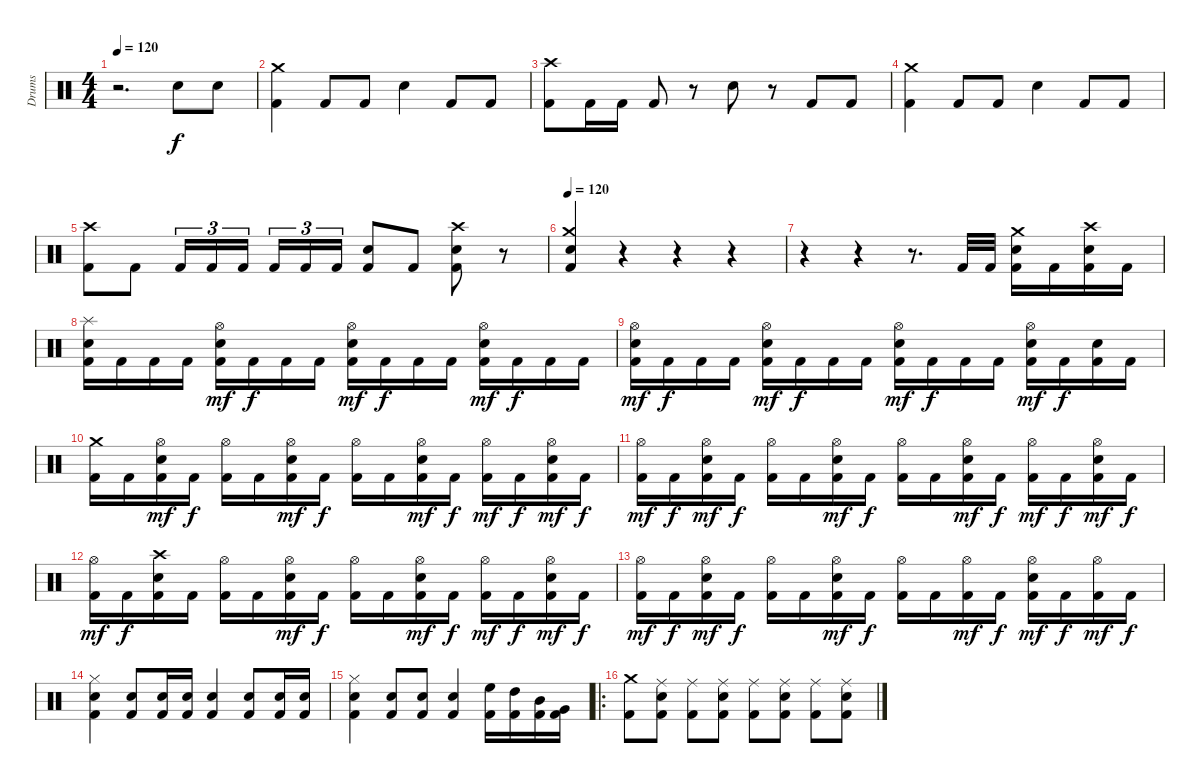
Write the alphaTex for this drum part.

\track ("Drums" "Drums") {instrument percussion}
\staff {score}
\articulation defaults
\ts (4 4)
\tempo 120
\tempo 100
\tempo 120
\clef neutral
\ks c
r.2{d dy f} "Snare (hit) 2".8 "Snare (hit) 2".8 |
("Crash medium (hit)" "Kick (hit) 2").4 "Kick (hit) 2".8 "Kick (hit) 2".8 "Snare (hit) 2".4 "Kick (hit) 2".8 "Kick (hit) 2".8 |
("Crash high (hit)" "Kick (hit) 2").8 "Kick (hit) 2".16 "Kick (hit) 2".16 "Kick (hit) 2".8 r.8 "Snare (hit) 2".8 r.8 "Kick (hit) 2".8 "Kick (hit) 2".8 |
("Crash medium (hit)" "Kick (hit) 2").4 "Kick (hit) 2".8 "Kick (hit) 2".8 "Snare (hit) 2".4 "Kick (hit) 2".8 "Kick (hit) 2".8 |
("Crash high (hit)" "Kick (hit) 2").8 "Kick (hit) 2".8 "Kick (hit) 2".16{tu (3 2)} "Kick (hit) 2".16{tu (3 2)} "Kick (hit) 2".16{tu (3 2)} "Kick (hit) 2".16{tu (3 2)} "Kick (hit) 2".16{tu (3 2)} "Kick (hit) 2".16{tu (3 2)} ("Snare (hit) 2" "Kick (hit) 2").8 "Kick (hit) 2".8 ("Crash high (hit)" "Snare (hit) 2" "Kick (hit) 2").8 r.8 |
\tempo 120
("Crash medium (hit)" "Snare (hit) 2" "Kick (hit) 2").4 r.4 r.4 r.4 |
r.4 r.4 r.8{d} "Kick (hit) 2".32 "Kick (hit) 2".32 ("Crash medium (hit)" "Snare (hit) 2" "Kick (hit) 2").16 "Kick (hit) 2".16 ("Crash high (hit)" "Snare (hit) 2" "Kick (hit) 2").16 "Kick (hit) 2".16 |
("Splash (hit)" "Snare (hit) 2" "Kick (hit) 2").16 "Kick (hit) 2".16 "Kick (hit) 2".16 "Kick (hit) 2".16 ("Hi-Hat (open)" "Snare (hit) 2" "Kick (hit) 2").16{dy mf} "Kick (hit) 2".16{dy f} "Kick (hit) 2".16 "Kick (hit) 2".16 ("Hi-Hat (open)" "Snare (hit) 2" "Kick (hit) 2").16{dy mf} "Kick (hit) 2".16{dy f} "Kick (hit) 2".16 "Kick (hit) 2".16 ("Hi-Hat (open)" "Snare (hit) 2" "Kick (hit) 2").16{dy mf} "Kick (hit) 2".16{dy f} "Kick (hit) 2".16 "Kick (hit) 2".16 |
("Hi-Hat (open)" "Snare (hit) 2" "Kick (hit) 2").16{dy mf} "Kick (hit) 2".16{dy f} "Kick (hit) 2".16 "Kick (hit) 2".16 ("Hi-Hat (open)" "Snare (hit) 2" "Kick (hit) 2").16{dy mf} "Kick (hit) 2".16{dy f} "Kick (hit) 2".16 "Kick (hit) 2".16 ("Hi-Hat (open)" "Snare (hit) 2" "Kick (hit) 2").16{dy mf} "Kick (hit) 2".16{dy f} "Kick (hit) 2".16 "Kick (hit) 2".16 ("Hi-Hat (open)" "Snare (hit) 2" "Kick (hit) 2").16{dy mf} "Kick (hit) 2".16{dy f} ("Snare (hit) 2" "Kick (hit) 2").16 "Kick (hit) 2".16 |
("Crash medium (hit)" "Kick (hit) 2").16 "Kick (hit) 2".16 ("Hi-Hat (open)" "Snare (hit) 2" "Kick (hit) 2").16{dy mf} "Kick (hit) 2".16{dy f} ("Hi-Hat (open)" "Kick (hit) 2").16 "Kick (hit) 2".16 ("Hi-Hat (open)" "Snare (hit) 2" "Kick (hit) 2").16{dy mf} "Kick (hit) 2".16{dy f} ("Hi-Hat (open)" "Kick (hit) 2").16 "Kick (hit) 2".16 ("Hi-Hat (open)" "Snare (hit) 2" "Kick (hit) 2").16{dy mf} "Kick (hit) 2".16{dy f} ("Hi-Hat (open)" "Kick (hit) 2").16{dy mf} "Kick (hit) 2".16{dy f} ("Hi-Hat (open)" "Snare (hit) 2" "Kick (hit) 2").16{dy mf} "Kick (hit) 2".16{dy f} |
("Hi-Hat (open)" "Kick (hit) 2").16{dy mf} "Kick (hit) 2".16{dy f} ("Hi-Hat (open)" "Snare (hit) 2" "Kick (hit) 2").16{dy mf} "Kick (hit) 2".16{dy f} ("Hi-Hat (open)" "Kick (hit) 2").16 "Kick (hit) 2".16 ("Hi-Hat (open)" "Snare (hit) 2" "Kick (hit) 2").16{dy mf} "Kick (hit) 2".16{dy f} ("Hi-Hat (open)" "Kick (hit) 2").16 "Kick (hit) 2".16 ("Hi-Hat (open)" "Snare (hit) 2" "Kick (hit) 2").16{dy mf} "Kick (hit) 2".16{dy f} ("Hi-Hat (open)" "Kick (hit) 2").16{dy mf} "Kick (hit) 2".16{dy f} ("Hi-Hat (open)" "Snare (hit) 2" "Kick (hit) 2").16{dy mf} "Kick (hit) 2".16{dy f} |
("Hi-Hat (open)" "Kick (hit) 2").16{dy mf} "Kick (hit) 2".16{dy f} ("Crash high (hit)" "Snare (hit) 2" "Kick (hit) 2").16 "Kick (hit) 2".16 ("Hi-Hat (open)" "Kick (hit) 2").16 "Kick (hit) 2".16 ("Hi-Hat (open)" "Snare (hit) 2" "Kick (hit) 2").16{dy mf} "Kick (hit) 2".16{dy f} ("Hi-Hat (open)" "Kick (hit) 2").16 "Kick (hit) 2".16 ("Hi-Hat (open)" "Snare (hit) 2" "Kick (hit) 2").16{dy mf} "Kick (hit) 2".16{dy f} ("Hi-Hat (open)" "Kick (hit) 2").16{dy mf} "Kick (hit) 2".16{dy f} ("Hi-Hat (open)" "Snare (hit) 2" "Kick (hit) 2").16{dy mf} "Kick (hit) 2".16{dy f} |
("Hi-Hat (open)" "Kick (hit) 2").16{dy mf} "Kick (hit) 2".16{dy f} ("Hi-Hat (open)" "Snare (hit) 2" "Kick (hit) 2").16{dy mf} "Kick (hit) 2".16{dy f} ("Hi-Hat (open)" "Kick (hit) 2").16 "Kick (hit) 2".16 ("Hi-Hat (open)" "Snare (hit) 2" "Kick (hit) 2").16{dy mf} "Kick (hit) 2".16{dy f} ("Hi-Hat (open)" "Kick (hit) 2").16 "Kick (hit) 2".16 ("Hi-Hat (open)" "Kick (hit) 2").16{dy mf} "Kick (hit) 2".16{dy f} ("Hi-Hat (open)" "Snare (hit) 2" "Kick (hit) 2").16{dy mf} "Kick (hit) 2".16{dy f} ("Hi-Hat (open)" "Kick (hit) 2").16{dy mf} "Kick (hit) 2".16{dy f} |
("Hi-Hat (closed)" "Snare (hit) 2" "Kick (hit) 2").4 ("Snare (hit) 2" "Kick (hit) 2").8 ("Kick (hit) 2" "Snare (hit) 2").16 ("Snare (hit) 2" "Kick (hit) 2").16 ("Snare (hit) 2" "Kick (hit) 2").4 ("Snare (hit) 2" "Kick (hit) 2").8 ("Snare (hit) 2" "Kick (hit) 2").16 ("Snare (hit) 2" "Kick (hit) 2").16 |
("Hi-Hat (closed)" "Snare (hit) 2" "Kick (hit) 2").4 ("Snare (hit) 2" "Kick (hit) 2").8 ("Snare (hit) 2" "Kick (hit) 2").8 ("Snare (hit) 2" "Kick (hit) 2").4 ("High Floor Tom (hit)" "Kick (hit) 2").16 ("High Tom (hit)" "Kick (hit) 2").16 ("Mid Tom (hit)" "Kick (hit) 2").16 ("Very Low Tom (hit)" "Kick (hit) 2").16 |
\ro
("Crash medium (hit)" "Kick (hit) 2").8 ("Ride (middle)" "Snare (hit) 2" "Kick (hit) 2").8 ("Ride (middle)" "Kick (hit) 2").8 ("Ride (middle)" "Snare (hit) 2" "Kick (hit) 2").8 ("Ride (middle)" "Kick (hit) 2").8 ("Ride (middle)" "Snare (hit) 2" "Kick (hit) 2").8 ("Ride (middle)" "Kick (hit) 2").8 ("Ride (middle)" "Snare (hit) 2" "Kick (hit) 2").8
